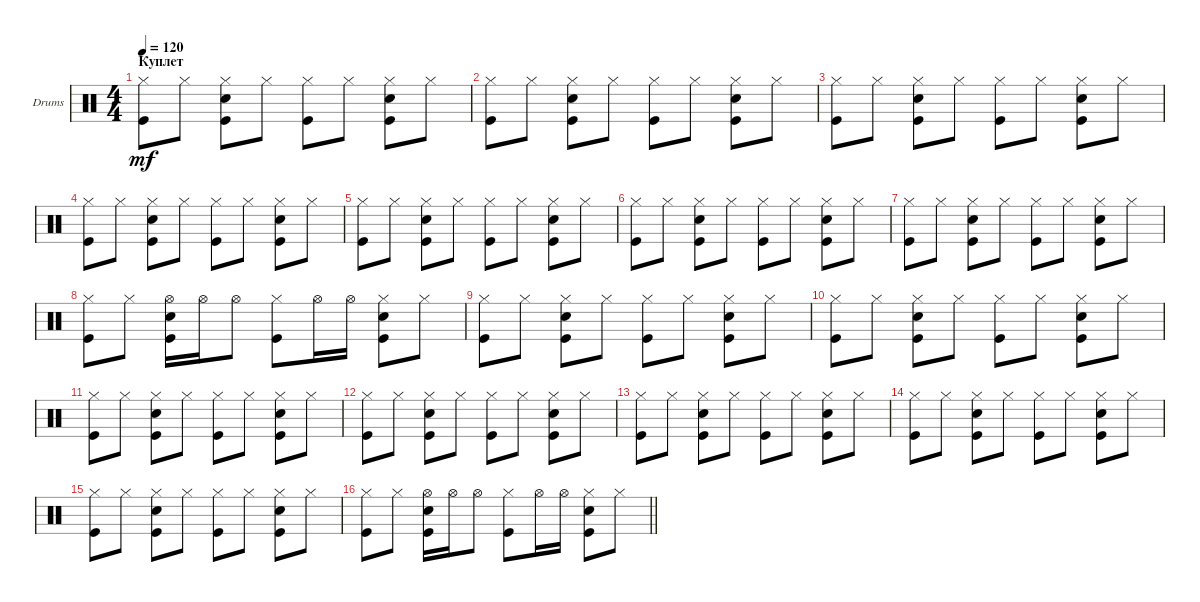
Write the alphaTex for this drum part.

\bracketExtendMode groupsimilarinstruments
\firstSystemTrackNameOrientation horizontal
\otherSystemsTrackNameOrientation horizontal
\track ("Ударные" "Drums") {instrument percussion}
\staff {score}
\articulation defaults
\ts (4 4)
\section ("" "Куплет")
\tempo 120
\clef neutral
\ks c
("Hi-Hat (closed)" "Kick (hit)").8{dy mf} "Hi-Hat (closed)".8 ("Hi-Hat (closed)" "Snare (hit) 2" "Kick (hit)").8 "Hi-Hat (closed)".8 ("Hi-Hat (closed)" "Kick (hit)").8 "Hi-Hat (closed)".8 ("Hi-Hat (closed)" "Snare (hit) 2" "Kick (hit)").8 "Hi-Hat (closed)".8 |
("Hi-Hat (closed)" "Kick (hit)").8 "Hi-Hat (closed)".8 ("Hi-Hat (closed)" "Snare (hit) 2" "Kick (hit)").8 "Hi-Hat (closed)".8 ("Hi-Hat (closed)" "Kick (hit)").8 "Hi-Hat (closed)".8 ("Hi-Hat (closed)" "Snare (hit) 2" "Kick (hit)").8 "Hi-Hat (closed)".8 |
("Hi-Hat (closed)" "Kick (hit)").8 "Hi-Hat (closed)".8 ("Hi-Hat (closed)" "Snare (hit) 2" "Kick (hit)").8 "Hi-Hat (closed)".8 ("Hi-Hat (closed)" "Kick (hit)").8 "Hi-Hat (closed)".8 ("Hi-Hat (closed)" "Snare (hit) 2" "Kick (hit)").8 "Hi-Hat (closed)".8 |
("Hi-Hat (closed)" "Kick (hit)").8 "Hi-Hat (closed)".8 ("Hi-Hat (closed)" "Snare (hit) 2" "Kick (hit)").8 "Hi-Hat (closed)".8 ("Hi-Hat (closed)" "Kick (hit)").8 "Hi-Hat (closed)".8 ("Hi-Hat (closed)" "Snare (hit) 2" "Kick (hit)").8 "Hi-Hat (closed)".8 |
("Hi-Hat (closed)" "Kick (hit)").8 "Hi-Hat (closed)".8 ("Hi-Hat (closed)" "Snare (hit) 2" "Kick (hit)").8 "Hi-Hat (closed)".8 ("Hi-Hat (closed)" "Kick (hit)").8 "Hi-Hat (closed)".8 ("Hi-Hat (closed)" "Snare (hit) 2" "Kick (hit)").8 "Hi-Hat (closed)".8 |
("Hi-Hat (closed)" "Kick (hit)").8 "Hi-Hat (closed)".8 ("Hi-Hat (closed)" "Snare (hit) 2" "Kick (hit)").8 "Hi-Hat (closed)".8 ("Hi-Hat (closed)" "Kick (hit)").8 "Hi-Hat (closed)".8 ("Hi-Hat (closed)" "Snare (hit) 2" "Kick (hit)").8 "Hi-Hat (closed)".8 |
("Hi-Hat (closed)" "Kick (hit)").8 "Hi-Hat (closed)".8 ("Hi-Hat (closed)" "Snare (hit) 2" "Kick (hit)").8 "Hi-Hat (closed)".8 ("Hi-Hat (closed)" "Kick (hit)").8 "Hi-Hat (closed)".8 ("Hi-Hat (closed)" "Snare (hit) 2" "Kick (hit)").8 "Hi-Hat (closed)".8 |
("Hi-Hat (closed)" "Kick (hit)").8 "Hi-Hat (closed)".8 ("Hi-Hat (open)" "Snare (hit) 2" "Kick (hit)").16 "Hi-Hat (open)".16 "Hi-Hat (open)".8 ("Hi-Hat (closed)" "Kick (hit)").8 "Hi-Hat (open)".16 "Hi-Hat (open)".16 ("Hi-Hat (closed)" "Snare (hit) 2" "Kick (hit)").8 "Hi-Hat (closed)".8 |
("Hi-Hat (closed)" "Kick (hit)").8 "Hi-Hat (closed)".8 ("Hi-Hat (closed)" "Snare (hit) 2" "Kick (hit)").8 "Hi-Hat (closed)".8 ("Hi-Hat (closed)" "Kick (hit)").8 "Hi-Hat (closed)".8 ("Hi-Hat (closed)" "Snare (hit) 2" "Kick (hit)").8 "Hi-Hat (closed)".8 |
("Hi-Hat (closed)" "Kick (hit)").8 "Hi-Hat (closed)".8 ("Hi-Hat (closed)" "Snare (hit) 2" "Kick (hit)").8 "Hi-Hat (closed)".8 ("Hi-Hat (closed)" "Kick (hit)").8 "Hi-Hat (closed)".8 ("Hi-Hat (closed)" "Snare (hit) 2" "Kick (hit)").8 "Hi-Hat (closed)".8 |
("Hi-Hat (closed)" "Kick (hit)").8 "Hi-Hat (closed)".8 ("Hi-Hat (closed)" "Snare (hit) 2" "Kick (hit)").8 "Hi-Hat (closed)".8 ("Hi-Hat (closed)" "Kick (hit)").8 "Hi-Hat (closed)".8 ("Hi-Hat (closed)" "Snare (hit) 2" "Kick (hit)").8 "Hi-Hat (closed)".8 |
("Hi-Hat (closed)" "Kick (hit)").8 "Hi-Hat (closed)".8 ("Hi-Hat (closed)" "Snare (hit) 2" "Kick (hit)").8 "Hi-Hat (closed)".8 ("Hi-Hat (closed)" "Kick (hit)").8 "Hi-Hat (closed)".8 ("Hi-Hat (closed)" "Snare (hit) 2" "Kick (hit)").8 "Hi-Hat (closed)".8 |
("Hi-Hat (closed)" "Kick (hit)").8 "Hi-Hat (closed)".8 ("Hi-Hat (closed)" "Snare (hit) 2" "Kick (hit)").8 "Hi-Hat (closed)".8 ("Hi-Hat (closed)" "Kick (hit)").8 "Hi-Hat (closed)".8 ("Hi-Hat (closed)" "Snare (hit) 2" "Kick (hit)").8 "Hi-Hat (closed)".8 |
("Hi-Hat (closed)" "Kick (hit)").8 "Hi-Hat (closed)".8 ("Hi-Hat (closed)" "Snare (hit) 2" "Kick (hit)").8 "Hi-Hat (closed)".8 ("Hi-Hat (closed)" "Kick (hit)").8 "Hi-Hat (closed)".8 ("Hi-Hat (closed)" "Snare (hit) 2" "Kick (hit)").8 "Hi-Hat (closed)".8 |
("Hi-Hat (closed)" "Kick (hit)").8 "Hi-Hat (closed)".8 ("Hi-Hat (closed)" "Snare (hit) 2" "Kick (hit)").8 "Hi-Hat (closed)".8 ("Hi-Hat (closed)" "Kick (hit)").8 "Hi-Hat (closed)".8 ("Hi-Hat (closed)" "Snare (hit) 2" "Kick (hit)").8 "Hi-Hat (closed)".8 |
\barLineRight lightlight
("Hi-Hat (closed)" "Kick (hit)").8 "Hi-Hat (closed)".8 ("Hi-Hat (open)" "Snare (hit) 2" "Kick (hit)").16 "Hi-Hat (open)".16 "Hi-Hat (open)".8 ("Hi-Hat (closed)" "Kick (hit)").8 "Hi-Hat (open)".16 "Hi-Hat (open)".16 ("Hi-Hat (closed)" "Snare (hit) 2" "Kick (hit)").8 "Hi-Hat (closed)".8
